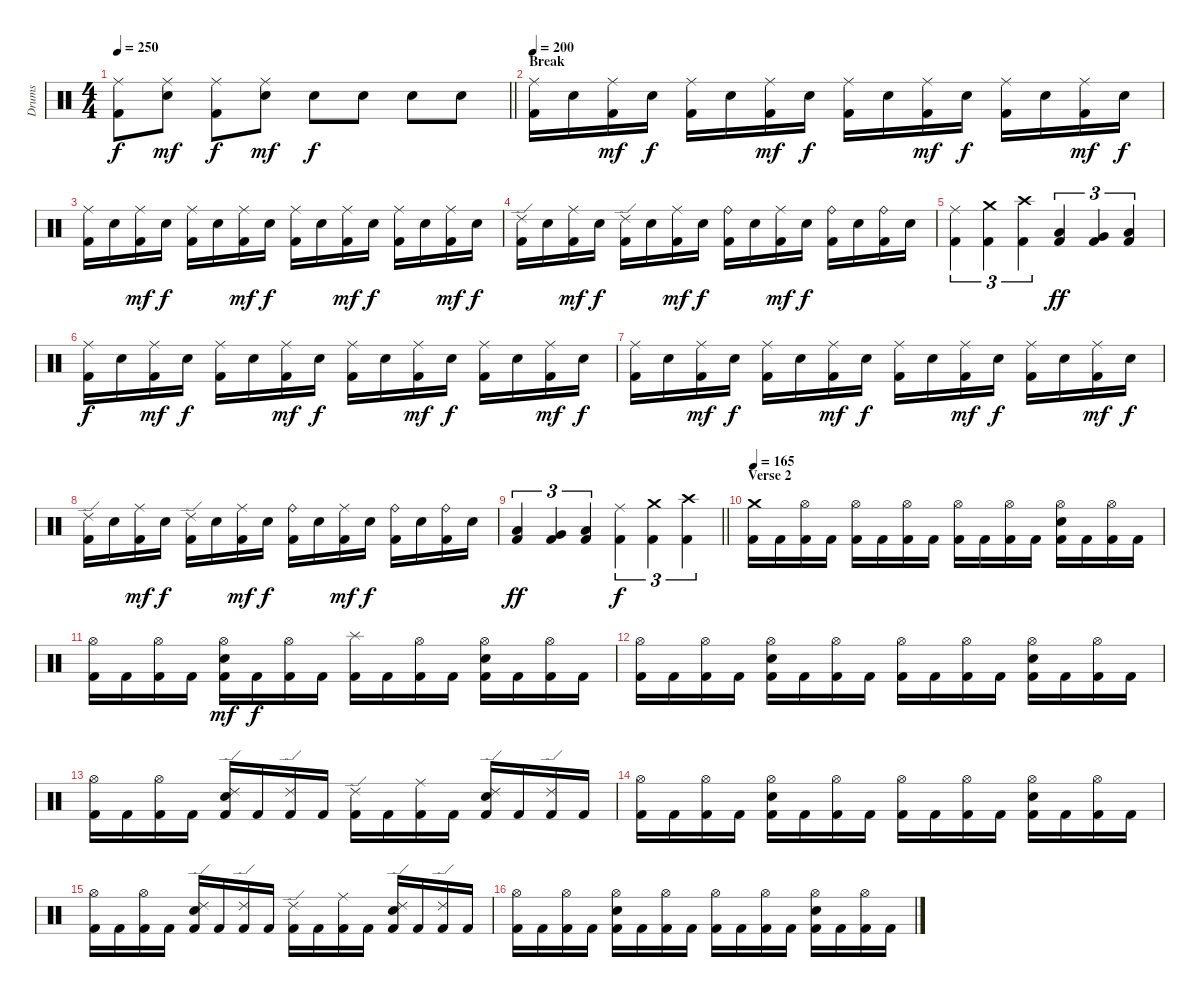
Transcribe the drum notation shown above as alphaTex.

\track ("Drums" "Drums") {instrument percussion}
\staff {score}
\articulation defaults
\ts (4 4)
\tempo 250
\clef neutral
\barLineRight lightlight
\ks c
("Ride (middle)" "Kick (hit) 2").8{dy f} ("Ride (middle)" "Snare (hit) 2").8{dy mf} ("Ride (middle)" "Kick (hit) 2").8{dy f} ("Ride (middle)" "Snare (hit) 2").8{dy mf} "Snare (hit) 2".8{dy f} "Snare (hit) 2".8 "Snare (hit) 2".8 "Snare (hit) 2".8 |
\section ("" "Break")
\tempo 200
("Ride (middle)" "Kick (hit) 2").16 "Snare (hit) 2".16 ("Ride (middle)" "Kick (hit) 2").16{dy mf} "Snare (hit) 2".16{dy f} ("Ride (middle)" "Kick (hit) 2").16 "Snare (hit) 2".16 ("Ride (middle)" "Kick (hit) 2").16{dy mf} "Snare (hit) 2".16{dy f} ("Ride (middle)" "Kick (hit) 2").16 "Snare (hit) 2".16 ("Ride (middle)" "Kick (hit) 2").16{dy mf} "Snare (hit) 2".16{dy f} ("Ride (middle)" "Kick (hit) 2").16 "Snare (hit) 2".16 ("Ride (middle)" "Kick (hit) 2").16{dy mf} "Snare (hit) 2".16{dy f} |
("Ride (middle)" "Kick (hit) 2").16 "Snare (hit) 2".16 ("Ride (middle)" "Kick (hit) 2").16{dy mf} "Snare (hit) 2".16{dy f} ("Ride (middle)" "Kick (hit) 2").16 "Snare (hit) 2".16 ("Ride (middle)" "Kick (hit) 2").16{dy mf} "Snare (hit) 2".16{dy f} ("Ride (middle)" "Kick (hit) 2").16 "Snare (hit) 2".16 ("Ride (middle)" "Kick (hit) 2").16{dy mf} "Snare (hit) 2".16{dy f} ("Ride (middle)" "Kick (hit) 2").16 "Snare (hit) 2".16 ("Ride (middle)" "Kick (hit) 2").16{dy mf} "Snare (hit) 2".16{dy f} |
("Ride (edge) 2" "Kick (hit) 2").16 "Snare (hit) 2".16 ("Ride (middle)" "Kick (hit) 2").16{dy mf} "Snare (hit) 2".16{dy f} ("Ride (edge) 2" "Kick (hit) 2").16 "Snare (hit) 2".16 ("Ride (middle)" "Kick (hit) 2").16{dy mf} "Snare (hit) 2".16{dy f} ("Ride (bell)" "Kick (hit) 2").16 "Snare (hit) 2".16 ("Ride (middle)" "Kick (hit) 2").16{dy mf} "Snare (hit) 2".16{dy f} ("Ride (bell)" "Kick (hit) 2").16 "Snare (hit) 2".16 ("Ride (bell)" "Kick (hit) 2").16 "Snare (hit) 2".16 |
("Ride (middle)" "Kick (hit) 2").4{tu (3 2)} ("Crash medium (hit)" "Kick (hit) 2").4{tu (3 2)} ("Crash high (hit)" "Kick (hit) 2").4{tu (3 2)} ("Low Tom (hit)" "Kick (hit) 2").4{tu (3 2) dy ff} ("Very Low Tom (hit)" "Kick (hit) 2").4{tu (3 2)} ("Low Floor Tom (hit)" "Kick (hit) 2").4{tu (3 2)} |
("Ride (middle)" "Kick (hit) 2").16{dy f} "Snare (hit) 2".16 ("Ride (middle)" "Kick (hit) 2").16{dy mf} "Snare (hit) 2".16{dy f} ("Ride (middle)" "Kick (hit) 2").16 "Snare (hit) 2".16 ("Ride (middle)" "Kick (hit) 2").16{dy mf} "Snare (hit) 2".16{dy f} ("Ride (middle)" "Kick (hit) 2").16 "Snare (hit) 2".16 ("Ride (middle)" "Kick (hit) 2").16{dy mf} "Snare (hit) 2".16{dy f} ("Ride (middle)" "Kick (hit) 2").16 "Snare (hit) 2".16 ("Ride (middle)" "Kick (hit) 2").16{dy mf} "Snare (hit) 2".16{dy f} |
("Ride (middle)" "Kick (hit) 2").16 "Snare (hit) 2".16 ("Ride (middle)" "Kick (hit) 2").16{dy mf} "Snare (hit) 2".16{dy f} ("Ride (middle)" "Kick (hit) 2").16 "Snare (hit) 2".16 ("Ride (middle)" "Kick (hit) 2").16{dy mf} "Snare (hit) 2".16{dy f} ("Ride (middle)" "Kick (hit) 2").16 "Snare (hit) 2".16 ("Ride (middle)" "Kick (hit) 2").16{dy mf} "Snare (hit) 2".16{dy f} ("Ride (middle)" "Kick (hit) 2").16 "Snare (hit) 2".16 ("Ride (middle)" "Kick (hit) 2").16{dy mf} "Snare (hit) 2".16{dy f} |
("Ride (edge) 2" "Kick (hit) 2").16 "Snare (hit) 2".16 ("Ride (middle)" "Kick (hit) 2").16{dy mf} "Snare (hit) 2".16{dy f} ("Ride (edge) 2" "Kick (hit) 2").16 "Snare (hit) 2".16 ("Ride (middle)" "Kick (hit) 2").16{dy mf} "Snare (hit) 2".16{dy f} ("Ride (bell)" "Kick (hit) 2").16 "Snare (hit) 2".16 ("Ride (middle)" "Kick (hit) 2").16{dy mf} "Snare (hit) 2".16{dy f} ("Ride (bell)" "Kick (hit) 2").16 "Snare (hit) 2".16 ("Ride (bell)" "Kick (hit) 2").16 "Snare (hit) 2".16 |
\barLineRight lightlight
("Low Tom (hit)" "Kick (hit) 2").4{tu (3 2) dy ff} ("Very Low Tom (hit)" "Kick (hit) 2").4{tu (3 2)} ("Low Floor Tom (hit)" "Kick (hit) 2").4{tu (3 2)} ("Ride (middle)" "Kick (hit) 2").4{tu (3 2) dy f} ("Crash medium (hit)" "Kick (hit) 2").4{tu (3 2)} ("Crash high (hit)" "Kick (hit) 2").4{tu (3 2)} |
\section ("" "Verse 2")
\tempo 165
("Crash medium (hit)" "Kick (hit) 2").16 "Kick (hit) 2".16 ("Hi-Hat (open)" "Kick (hit) 2").16 "Kick (hit) 2".16 ("Hi-Hat (open)" "Kick (hit) 2").16 "Kick (hit) 2".16 ("Hi-Hat (open)" "Kick (hit) 2").16 "Kick (hit) 2".16 ("Hi-Hat (open)" "Kick (hit) 2").16 "Kick (hit) 2".16 ("Hi-Hat (open)" "Kick (hit) 2").16 "Kick (hit) 2".16 ("Hi-Hat (open)" "Snare (hit) 2" "Kick (hit) 2").16 "Kick (hit) 2".16 ("Hi-Hat (open)" "Kick (hit) 2").16 "Kick (hit) 2".16 |
("Hi-Hat (open)" "Kick (hit) 2").16 "Kick (hit) 2".16 ("Hi-Hat (open)" "Kick (hit) 2").16 "Kick (hit) 2".16 ("Hi-Hat (open)" "Snare (hit) 2" "Kick (hit) 2").16{dy mf} "Kick (hit) 2".16{dy f} ("Hi-Hat (open)" "Kick (hit) 2").16 "Kick (hit) 2".16 ("Splash (hit)" "Kick (hit) 2").16 "Kick (hit) 2".16 ("Hi-Hat (open)" "Kick (hit) 2").16 "Kick (hit) 2".16 ("Hi-Hat (open)" "Snare (hit) 2" "Kick (hit) 2").16 "Kick (hit) 2".16 ("Hi-Hat (open)" "Kick (hit) 2").16 "Kick (hit) 2".16 |
("Hi-Hat (open)" "Kick (hit) 2").16 "Kick (hit) 2".16 ("Hi-Hat (open)" "Kick (hit) 2").16 "Kick (hit) 2".16 ("Hi-Hat (open)" "Snare (hit) 2" "Kick (hit) 2").16 "Kick (hit) 2".16 ("Hi-Hat (open)" "Kick (hit) 2").16 "Kick (hit) 2".16 ("Hi-Hat (open)" "Kick (hit) 2").16 "Kick (hit) 2".16 ("Hi-Hat (open)" "Kick (hit) 2").16 "Kick (hit) 2".16 ("Hi-Hat (open)" "Snare (hit) 2" "Kick (hit) 2").16 "Kick (hit) 2".16 ("Hi-Hat (open)" "Kick (hit) 2").16 "Kick (hit) 2".16 |
("Hi-Hat (open)" "Kick (hit) 2").16 "Kick (hit) 2".16 ("Hi-Hat (open)" "Kick (hit) 2").16 "Kick (hit) 2".16 ("Ride (edge) 2" "Snare (hit) 2" "Kick (hit) 2").16 "Kick (hit) 2".16 ("Ride (edge) 2" "Kick (hit) 2").16 "Kick (hit) 2".16 ("Ride (edge) 2" "Kick (hit) 2").16 "Kick (hit) 2".16 ("Ride (middle)" "Kick (hit) 2").16 "Kick (hit) 2".16 ("Ride (edge) 2" "Snare (hit) 2" "Kick (hit) 2").16 "Kick (hit) 2".16 ("Ride (edge) 2" "Kick (hit) 2").16 "Kick (hit) 2".16 |
("Hi-Hat (open)" "Kick (hit) 2").16 "Kick (hit) 2".16 ("Hi-Hat (open)" "Kick (hit) 2").16 "Kick (hit) 2".16 ("Hi-Hat (open)" "Snare (hit) 2" "Kick (hit) 2").16 "Kick (hit) 2".16 ("Hi-Hat (open)" "Kick (hit) 2").16 "Kick (hit) 2".16 ("Hi-Hat (open)" "Kick (hit) 2").16 "Kick (hit) 2".16 ("Hi-Hat (open)" "Kick (hit) 2").16 "Kick (hit) 2".16 ("Hi-Hat (open)" "Snare (hit) 2" "Kick (hit) 2").16 "Kick (hit) 2".16 ("Hi-Hat (open)" "Kick (hit) 2").16 "Kick (hit) 2".16 |
("Hi-Hat (open)" "Kick (hit) 2").16 "Kick (hit) 2".16 ("Hi-Hat (open)" "Kick (hit) 2").16 "Kick (hit) 2".16 ("Ride (edge) 2" "Snare (hit) 2" "Kick (hit) 2").16 "Kick (hit) 2".16 ("Ride (edge) 2" "Kick (hit) 2").16 "Kick (hit) 2".16 ("Ride (edge) 2" "Kick (hit) 2").16 "Kick (hit) 2".16 ("Ride (middle)" "Kick (hit) 2").16 "Kick (hit) 2".16 ("Ride (edge) 2" "Snare (hit) 2" "Kick (hit) 2").16 "Kick (hit) 2".16 ("Ride (edge) 2" "Kick (hit) 2").16 "Kick (hit) 2".16 |
("Hi-Hat (open)" "Kick (hit) 2").16 "Kick (hit) 2".16 ("Hi-Hat (open)" "Kick (hit) 2").16 "Kick (hit) 2".16 ("Hi-Hat (open)" "Snare (hit) 2" "Kick (hit) 2").16 "Kick (hit) 2".16 ("Hi-Hat (open)" "Kick (hit) 2").16 "Kick (hit) 2".16 ("Hi-Hat (open)" "Kick (hit) 2").16 "Kick (hit) 2".16 ("Hi-Hat (open)" "Kick (hit) 2").16 "Kick (hit) 2".16 ("Hi-Hat (open)" "Snare (hit) 2" "Kick (hit) 2").16 "Kick (hit) 2".16 ("Hi-Hat (open)" "Kick (hit) 2").16 "Kick (hit) 2".16
